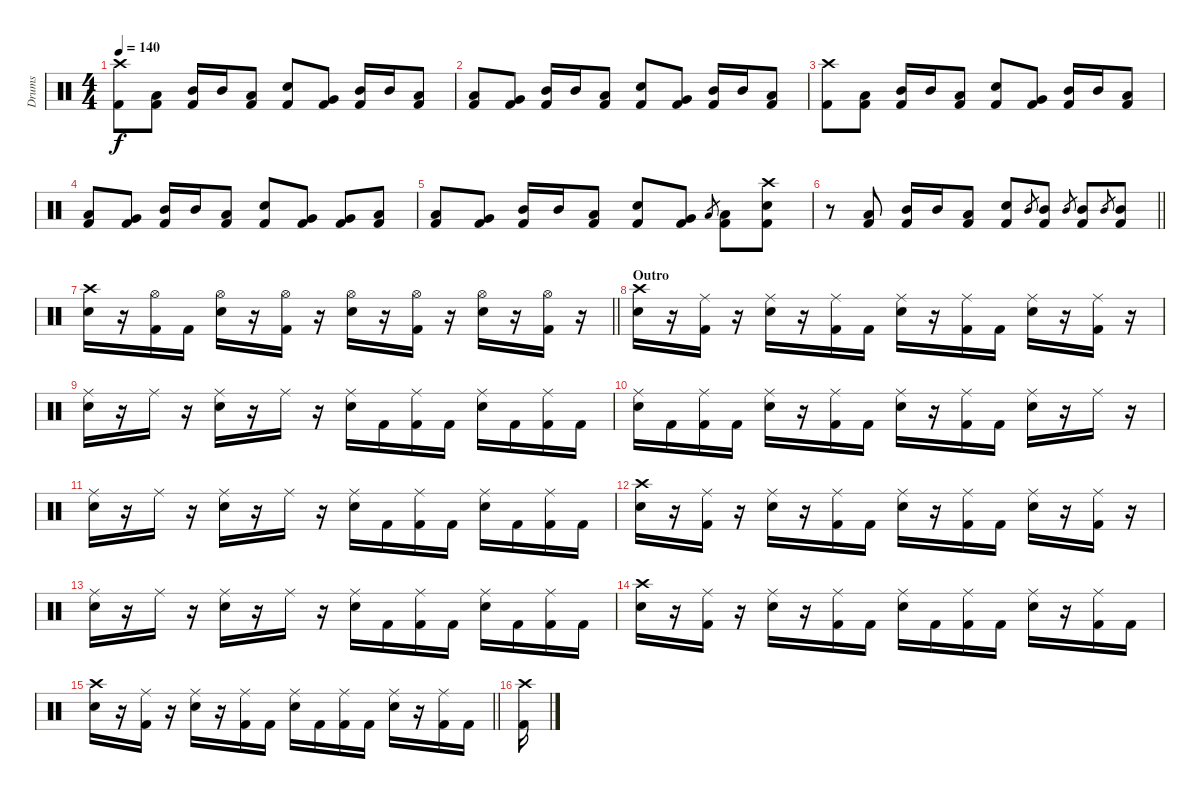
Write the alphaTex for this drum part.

\track ("Drums" "Drums") {instrument percussion}
\staff {score}
\articulation defaults
\ts (4 4)
\tempo 140
\clef neutral
\ks c
("Crash high (hit)" "Kick (hit) 2").8{dy f} ("Low Floor Tom (hit)" "Kick (hit) 2").8 ("Mid Tom (hit)" "Kick (hit) 2").16 "Mid Tom (hit)".16 ("Low Tom (hit)" "Kick (hit) 2").8 ("Snare (hit) 2" "Kick (hit) 2").8 ("Very Low Tom (hit)" "Kick (hit) 2").8 ("Mid Tom (hit)" "Kick (hit) 2").16 "Mid Tom (hit)".16 ("Low Tom (hit)" "Kick (hit) 2").8 |
("Low Floor Tom (hit)" "Kick (hit) 2").8 ("Very Low Tom (hit)" "Kick (hit) 2").8 ("Mid Tom (hit)" "Kick (hit) 2").16 "Mid Tom (hit)".16 ("Low Tom (hit)" "Kick (hit) 2").8 ("Snare (hit) 2" "Kick (hit) 2").8 ("Very Low Tom (hit)" "Kick (hit) 2").8 ("Mid Tom (hit)" "Kick (hit) 2").16 "Mid Tom (hit)".16 ("Low Tom (hit)" "Kick (hit) 2").8 |
("Crash high (hit)" "Kick (hit) 2").8 ("Low Floor Tom (hit)" "Kick (hit) 2").8 ("Mid Tom (hit)" "Kick (hit) 2").16 "Mid Tom (hit)".16 ("Low Tom (hit)" "Kick (hit) 2").8 ("Snare (hit) 2" "Kick (hit) 2").8 ("Very Low Tom (hit)" "Kick (hit) 2").8 ("Mid Tom (hit)" "Kick (hit) 2").16 "Mid Tom (hit)".16 ("Low Tom (hit)" "Kick (hit) 2").8 |
("Low Floor Tom (hit)" "Kick (hit) 2").8 ("Very Low Tom (hit)" "Kick (hit) 2").8 ("Mid Tom (hit)" "Kick (hit) 2").16 "Mid Tom (hit)".16 ("Low Tom (hit)" "Kick (hit) 2").8 ("Snare (hit) 2" "Kick (hit) 2").8 ("Very Low Tom (hit)" "Kick (hit) 2").8 ("Very Low Tom (hit)" "Kick (hit) 2").8 ("Low Tom (hit)" "Kick (hit) 2").8 |
("Low Floor Tom (hit)" "Kick (hit) 2").8 ("Very Low Tom (hit)" "Kick (hit) 2").8 ("Mid Tom (hit)" "Kick (hit) 2").16 "Mid Tom (hit)".16 ("Low Tom (hit)" "Kick (hit) 2").8 ("Snare (hit) 2" "Kick (hit) 2").8 ("Very Low Tom (hit)" "Kick (hit) 2").8 "Low Tom (hit)".8{gr} ("Low Tom (hit)" "Kick (hit) 2").8 ("Crash high (hit)" "Snare (hit) 2" "Kick (hit) 2").8 |
\barLineRight lightlight
r.8 ("Low Tom (hit)" "Kick (hit) 2").8 ("Mid Tom (hit)" "Kick (hit) 2").16 "Mid Tom (hit)".16 ("Low Tom (hit)" "Kick (hit) 2").8 ("Snare (hit) 2" "Kick (hit) 2").8 "Mid Tom (hit)".8{gr} ("Mid Tom (hit)" "Kick (hit) 2").8 "Mid Tom (hit)".8{gr} ("Mid Tom (hit)" "Kick (hit) 2").8 "Mid Tom (hit)".8{gr} ("Mid Tom (hit)" "Kick (hit) 2").8 |
\barLineRight lightlight
("Crash high (hit)" "Snare (hit) 2").16 r.16 ("Hi-Hat (open)" "Kick (hit) 2").16 "Kick (hit) 2".16 ("Hi-Hat (open)" "Snare (hit) 2").16 r.16 ("Hi-Hat (open)" "Kick (hit) 2").16 r.16 ("Hi-Hat (open)" "Snare (hit) 2").16 r.16 ("Hi-Hat (open)" "Kick (hit) 2").16 r.16 ("Hi-Hat (open)" "Snare (hit) 2").16 r.16 ("Hi-Hat (open)" "Kick (hit) 2").16 r.16 |
\section ("" "Outro")
("Crash high (hit)" "Snare (hit) 2").16 r.16 ("Ride (middle)" "Kick (hit) 2").16 r.16 ("Ride (middle)" "Snare (hit) 2").16 r.16 ("Ride (middle)" "Kick (hit) 2").16 "Kick (hit) 2".16 ("Ride (middle)" "Snare (hit) 2").16 r.16 ("Ride (middle)" "Kick (hit) 2").16 "Kick (hit) 2".16 ("Ride (middle)" "Snare (hit) 2").16 r.16 ("Ride (middle)" "Kick (hit) 2").16 r.16 |
("Ride (middle)" "Snare (hit) 2").16 r.16 "Ride (middle)".16 r.16 ("Ride (middle)" "Snare (hit) 2").16 r.16 "Ride (middle)".16 r.16 ("Ride (middle)" "Snare (hit) 2").16 "Kick (hit) 2".16 ("Ride (middle)" "Kick (hit) 2").16 "Kick (hit) 2".16 ("Ride (middle)" "Snare (hit) 2").16 "Kick (hit) 2".16 ("Ride (middle)" "Kick (hit) 2").16 "Kick (hit) 2".16 |
("Ride (middle)" "Snare (hit) 2").16 "Kick (hit) 2".16 ("Ride (middle)" "Kick (hit) 2").16 "Kick (hit) 2".16 ("Ride (middle)" "Snare (hit) 2").16 r.16 ("Ride (middle)" "Kick (hit) 2").16 "Kick (hit) 2".16 ("Ride (middle)" "Snare (hit) 2").16 r.16 ("Ride (middle)" "Kick (hit) 2").16 "Kick (hit) 2".16 ("Ride (middle)" "Snare (hit) 2").16 r.16 "Ride (middle)".16 r.16 |
("Ride (middle)" "Snare (hit) 2").16 r.16 "Ride (middle)".16 r.16 ("Ride (middle)" "Snare (hit) 2").16 r.16 "Ride (middle)".16 r.16 ("Ride (middle)" "Snare (hit) 2").16 "Kick (hit) 2".16 ("Ride (middle)" "Kick (hit) 2").16 "Kick (hit) 2".16 ("Ride (middle)" "Snare (hit) 2").16 "Kick (hit) 2".16 ("Ride (middle)" "Kick (hit) 2").16 "Kick (hit) 2".16 |
("Crash high (hit)" "Snare (hit) 2").16 r.16 ("Ride (middle)" "Kick (hit) 2").16 r.16 ("Ride (middle)" "Snare (hit) 2").16 r.16 ("Ride (middle)" "Kick (hit) 2").16 "Kick (hit) 2".16 ("Ride (middle)" "Snare (hit) 2").16 r.16 ("Ride (middle)" "Kick (hit) 2").16 "Kick (hit) 2".16 ("Ride (middle)" "Snare (hit) 2").16 r.16 ("Ride (middle)" "Kick (hit) 2").16 r.16 |
("Ride (middle)" "Snare (hit) 2").16 r.16 "Ride (middle)".16 r.16 ("Ride (middle)" "Snare (hit) 2").16 r.16 "Ride (middle)".16 r.16 ("Ride (middle)" "Snare (hit) 2").16 "Kick (hit) 2".16 ("Ride (middle)" "Kick (hit) 2").16 "Kick (hit) 2".16 ("Ride (middle)" "Snare (hit) 2").16 "Kick (hit) 2".16 ("Ride (middle)" "Kick (hit) 2").16 "Kick (hit) 2".16 |
("Crash high (hit)" "Snare (hit) 2").16 r.16 ("Ride (middle)" "Kick (hit) 2").16 r.16 ("Ride (middle)" "Snare (hit) 2").16 r.16 ("Ride (middle)" "Kick (hit) 2").16 "Kick (hit) 2".16 ("Ride (middle)" "Snare (hit) 2").16 "Kick (hit) 2".16 ("Ride (middle)" "Kick (hit) 2").16 "Kick (hit) 2".16 ("Ride (middle)" "Snare (hit) 2").16 r.16 ("Ride (middle)" "Kick (hit) 2").16 "Kick (hit) 2".16 |
\barLineRight lightlight
("Crash high (hit)" "Snare (hit) 2").16 r.16 ("Ride (middle)" "Kick (hit) 2").16 r.16 ("Ride (middle)" "Snare (hit) 2").16 r.16 ("Ride (middle)" "Kick (hit) 2").16 "Kick (hit) 2".16 ("Ride (middle)" "Snare (hit) 2").16 "Kick (hit) 2".16 ("Ride (middle)" "Kick (hit) 2").16 "Kick (hit) 2".16 ("Ride (middle)" "Snare (hit) 2").16 r.16 ("Ride (middle)" "Kick (hit) 2").16 "Kick (hit) 2".16 |
("Crash high (hit)" "Kick (hit) 2").16
